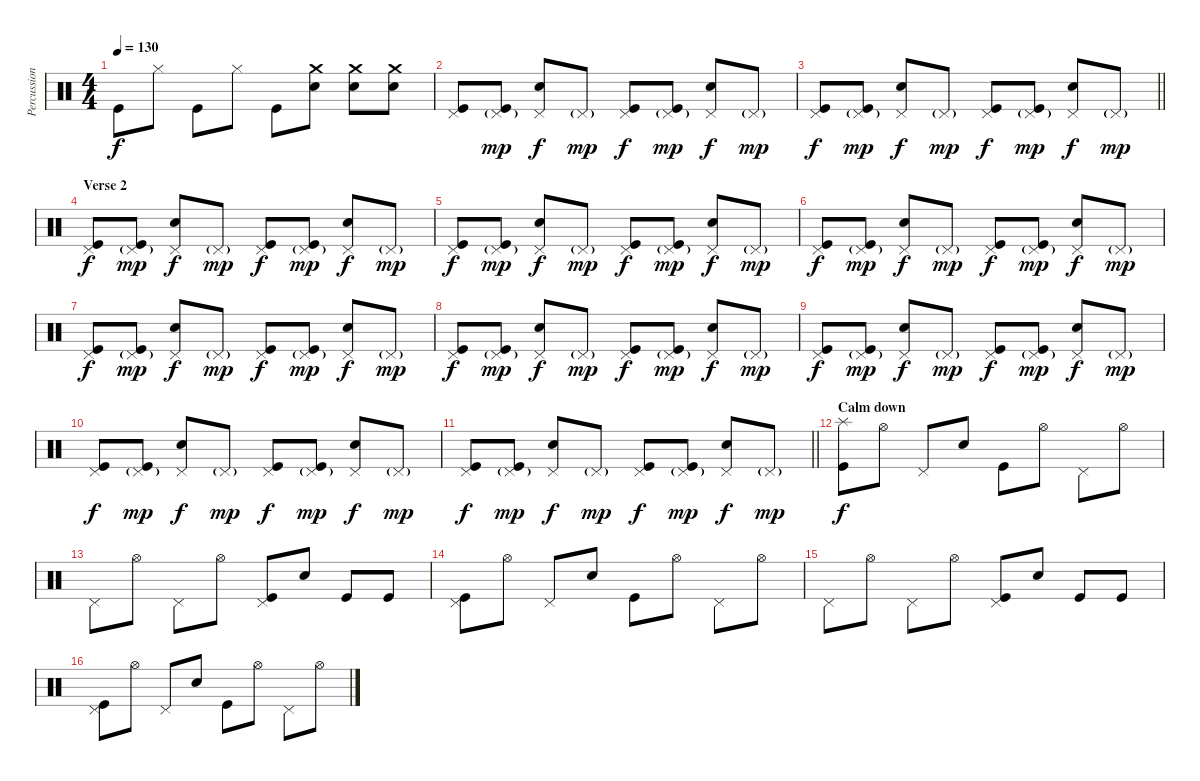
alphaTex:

\track ("Percussion" "Percussion") {instrument percussion}
\staff {score}
\articulation defaults
\ts (4 4)
\tempo 130
\clef neutral
\ks c "Kick (hit)".8{dy f} "Hi-Hat (closed)".8 "Kick (hit)".8 "Hi-Hat (closed)".8 "Kick (hit)".8
("Crash medium (hit)" "Snare (hit) 2").8 ("Crash medium (hit)" "Snare (hit) 2").8 ("Crash medium (hit)" "Snare (hit) 2").8 |
("Pedal Hi-Hat (hit)" "Kick (hit)").8 ("Pedal Hi-Hat (hit)"{g} "Kick (hit)").8{dy mp} ("Pedal Hi-Hat (hit)" "Snare (hit) 2").8{dy f} "Pedal Hi-Hat (hit)"{g}.8{dy mp} ("Pedal Hi-Hat (hit)" "Kick (hit)").8{dy f} ("Pedal Hi-Hat (hit)"{g} "Kick (hit)").8{dy mp} ("Pedal Hi-Hat (hit)" "Snare (hit) 2").8{dy f} "Pedal Hi-Hat (hit)"{g}.8{dy mp} |
\barLineRight lightlight
("Pedal Hi-Hat (hit)" "Kick (hit)").8{dy f} ("Pedal Hi-Hat (hit)"{g} "Kick (hit)").8{dy mp} ("Pedal Hi-Hat (hit)" "Snare (hit) 2").8{dy f} "Pedal Hi-Hat (hit)"{g}.8{dy mp} ("Pedal Hi-Hat (hit)" "Kick (hit)").8{dy f} ("Pedal Hi-Hat (hit)"{g} "Kick (hit)").8{dy mp} ("Pedal Hi-Hat (hit)" "Snare (hit) 2").8{dy f} "Pedal Hi-Hat (hit)"{g}.8{dy mp} |
\section ("" "Verse 2")
("Pedal Hi-Hat (hit)" "Kick (hit)").8{dy f} ("Pedal Hi-Hat (hit)"{g} "Kick (hit)").8{dy mp} ("Pedal Hi-Hat (hit)" "Snare (hit) 2").8{dy f} "Pedal Hi-Hat (hit)"{g}.8{dy mp} ("Pedal Hi-Hat (hit)" "Kick (hit)").8{dy f} ("Pedal Hi-Hat (hit)"{g} "Kick (hit)").8{dy mp} ("Pedal Hi-Hat (hit)" "Snare (hit) 2").8{dy f} "Pedal Hi-Hat (hit)"{g}.8{dy mp} |
("Pedal Hi-Hat (hit)" "Kick (hit)").8{dy f} ("Pedal Hi-Hat (hit)"{g} "Kick (hit)").8{dy mp} ("Pedal Hi-Hat (hit)" "Snare (hit) 2").8{dy f} "Pedal Hi-Hat (hit)"{g}.8{dy mp} ("Pedal Hi-Hat (hit)" "Kick (hit)").8{dy f} ("Pedal Hi-Hat (hit)"{g} "Kick (hit)").8{dy mp} ("Pedal Hi-Hat (hit)" "Snare (hit) 2").8{dy f} "Pedal Hi-Hat (hit)"{g}.8{dy mp} |
("Pedal Hi-Hat (hit)" "Kick (hit)").8{dy f} ("Pedal Hi-Hat (hit)"{g} "Kick (hit)").8{dy mp} ("Pedal Hi-Hat (hit)" "Snare (hit) 2").8{dy f} "Pedal Hi-Hat (hit)"{g}.8{dy mp} ("Pedal Hi-Hat (hit)" "Kick (hit)").8{dy f} ("Pedal Hi-Hat (hit)"{g} "Kick (hit)").8{dy mp} ("Pedal Hi-Hat (hit)" "Snare (hit) 2").8{dy f} "Pedal Hi-Hat (hit)"{g}.8{dy mp} |
("Pedal Hi-Hat (hit)" "Kick (hit)").8{dy f} ("Pedal Hi-Hat (hit)"{g} "Kick (hit)").8{dy mp} ("Pedal Hi-Hat (hit)" "Snare (hit) 2").8{dy f} "Pedal Hi-Hat (hit)"{g}.8{dy mp} ("Pedal Hi-Hat (hit)" "Kick (hit)").8{dy f} ("Pedal Hi-Hat (hit)"{g} "Kick (hit)").8{dy mp} ("Pedal Hi-Hat (hit)" "Snare (hit) 2").8{dy f} "Pedal Hi-Hat (hit)"{g}.8{dy mp} |
("Pedal Hi-Hat (hit)" "Kick (hit)").8{dy f} ("Pedal Hi-Hat (hit)"{g} "Kick (hit)").8{dy mp} ("Pedal Hi-Hat (hit)" "Snare (hit) 2").8{dy f} "Pedal Hi-Hat (hit)"{g}.8{dy mp} ("Pedal Hi-Hat (hit)" "Kick (hit)").8{dy f} ("Pedal Hi-Hat (hit)"{g} "Kick (hit)").8{dy mp} ("Pedal Hi-Hat (hit)" "Snare (hit) 2").8{dy f} "Pedal Hi-Hat (hit)"{g}.8{dy mp} |
("Pedal Hi-Hat (hit)" "Kick (hit)").8{dy f} ("Pedal Hi-Hat (hit)"{g} "Kick (hit)").8{dy mp} ("Pedal Hi-Hat (hit)" "Snare (hit) 2").8{dy f} "Pedal Hi-Hat (hit)"{g}.8{dy mp} ("Pedal Hi-Hat (hit)" "Kick (hit)").8{dy f} ("Pedal Hi-Hat (hit)"{g} "Kick (hit)").8{dy mp} ("Pedal Hi-Hat (hit)" "Snare (hit) 2").8{dy f} "Pedal Hi-Hat (hit)"{g}.8{dy mp} |
("Pedal Hi-Hat (hit)" "Kick (hit)").8{dy f} ("Pedal Hi-Hat (hit)"{g} "Kick (hit)").8{dy mp} ("Pedal Hi-Hat (hit)" "Snare (hit) 2").8{dy f} "Pedal Hi-Hat (hit)"{g}.8{dy mp} ("Pedal Hi-Hat (hit)" "Kick (hit)").8{dy f} ("Pedal Hi-Hat (hit)"{g} "Kick (hit)").8{dy mp} ("Pedal Hi-Hat (hit)" "Snare (hit) 2").8{dy f} "Pedal Hi-Hat (hit)"{g}.8{dy mp} |
\barLineRight lightlight
("Pedal Hi-Hat (hit)" "Kick (hit)").8{dy f} ("Pedal Hi-Hat (hit)"{g} "Kick (hit)").8{dy mp} ("Pedal Hi-Hat (hit)" "Snare (hit) 2").8{dy f} "Pedal Hi-Hat (hit)"{g}.8{dy mp} ("Pedal Hi-Hat (hit)" "Kick (hit)").8{dy f} ("Pedal Hi-Hat (hit)"{g} "Kick (hit)").8{dy mp} ("Pedal Hi-Hat (hit)" "Snare (hit) 2").8{dy f} "Pedal Hi-Hat (hit)"{g}.8{dy mp} |
\section ("" "Calm down")
("Splash (hit)" "Kick (hit)").8{dy f} "Hi-Hat (open)".8 "Pedal Hi-Hat (hit)".8 "Snare (hit) 2".8 "Kick (hit)".8 "Hi-Hat (open)".8 "Pedal Hi-Hat (hit)".8 "Hi-Hat (open)".8 |
"Pedal Hi-Hat (hit)".8 "Hi-Hat (open)".8 "Pedal Hi-Hat (hit)".8 "Hi-Hat (open)".8 ("Pedal Hi-Hat (hit)" "Kick (hit)").8 "Snare (hit) 2".8 "Kick (hit)".8 "Kick (hit)".8 |
("Pedal Hi-Hat (hit)" "Kick (hit)").8 "Hi-Hat (open)".8 "Pedal Hi-Hat (hit)".8 "Snare (hit) 2".8 "Kick (hit)".8 "Hi-Hat (open)".8 "Pedal Hi-Hat (hit)".8 "Hi-Hat (open)".8 |
"Pedal Hi-Hat (hit)".8 "Hi-Hat (open)".8 "Pedal Hi-Hat (hit)".8 "Hi-Hat (open)".8 ("Pedal Hi-Hat (hit)" "Kick (hit)").8 "Snare (hit) 2".8 "Kick (hit)".8 "Kick (hit)".8 |
("Pedal Hi-Hat (hit)" "Kick (hit)").8 "Hi-Hat (open)".8 "Pedal Hi-Hat (hit)".8 "Snare (hit) 2".8 "Kick (hit)".8 "Hi-Hat (open)".8 "Pedal Hi-Hat (hit)".8 "Hi-Hat (open)".8
